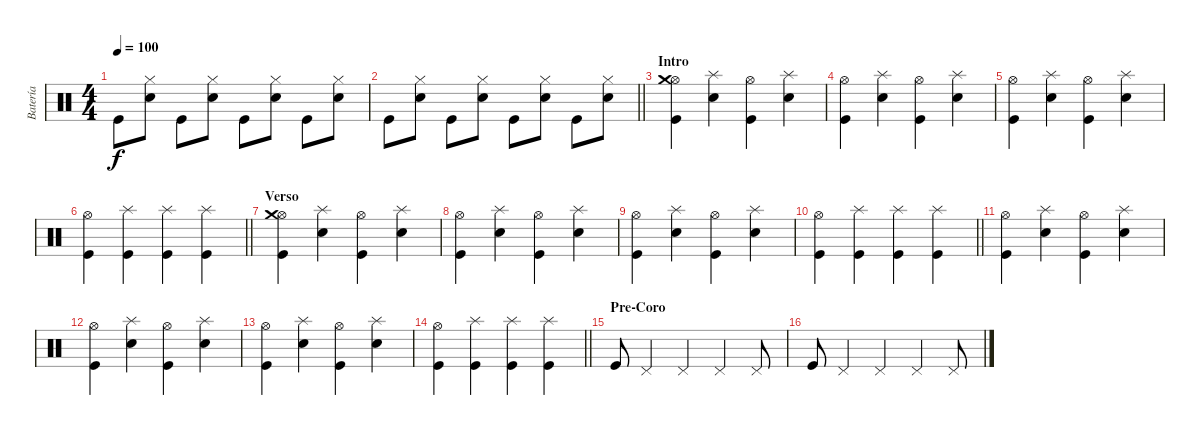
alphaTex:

\track ("Batería" "Batería") {instrument percussion}
\staff {score}
\articulation defaults
\ts (4 4)
\tempo 100
\clef neutral
\ks c "Kick (hit)".8{dy f}
("Electric Snare (hit)" "Hi-Hat (closed)").8 "Kick (hit)".8 ("Electric Snare (hit)" "Hi-Hat (closed)").8 "Kick (hit)".8 ("Electric Snare (hit)" "Hi-Hat (closed)").8 "Kick (hit)".8 ("Electric Snare (hit)" "Hi-Hat (closed)").8 |
\barLineRight lightlight "Kick (hit)".8
("Electric Snare (hit)" "Hi-Hat (closed)").8 "Kick (hit)".8 ("Electric Snare (hit)" "Hi-Hat (closed)").8 "Kick (hit)".8 ("Electric Snare (hit)" "Hi-Hat (closed)").8 "Kick (hit)".8 ("Electric Snare (hit)" "Hi-Hat (closed)").8 |
\section ("" "Intro")
("Kick (hit)" "Hi-Hat (open)" "Crash medium (hit)").4 ("Electric Snare (hit)" "Splash (hit)").4 ("Kick (hit)" "Hi-Hat (open)").4 ("Electric Snare (hit)" "Splash (hit)").4 |
("Kick (hit)" "Hi-Hat (open)").4 ("Electric Snare (hit)" "Splash (hit)").4 ("Kick (hit)" "Hi-Hat (open)").4 ("Electric Snare (hit)" "Splash (hit)").4 |
("Kick (hit)" "Hi-Hat (open)").4 ("Electric Snare (hit)" "Splash (hit)").4 ("Kick (hit)" "Hi-Hat (open)").4 ("Electric Snare (hit)" "Splash (hit)").4 |
\barLineRight lightlight
("Kick (hit)" "Hi-Hat (open)").4 ("Kick (hit)" "Splash (hit)").4 ("Kick (hit)" "Splash (hit)").4 ("Kick (hit)" "Splash (hit)").4 |
\section ("" "Verso")
("Kick (hit)" "Hi-Hat (open)" "Crash medium (hit)").4 ("Electric Snare (hit)" "Splash (hit)").4 ("Kick (hit)" "Hi-Hat (open)").4 ("Electric Snare (hit)" "Splash (hit)").4 |
("Kick (hit)" "Hi-Hat (open)").4 ("Electric Snare (hit)" "Splash (hit)").4 ("Kick (hit)" "Hi-Hat (open)").4 ("Electric Snare (hit)" "Splash (hit)").4 |
("Kick (hit)" "Hi-Hat (open)").4 ("Electric Snare (hit)" "Splash (hit)").4 ("Kick (hit)" "Hi-Hat (open)").4 ("Electric Snare (hit)" "Splash (hit)").4 |
\barLineRight lightlight
("Kick (hit)" "Hi-Hat (open)").4 ("Kick (hit)" "Splash (hit)").4 ("Kick (hit)" "Splash (hit)").4 ("Kick (hit)" "Splash (hit)").4 |
("Kick (hit)" "Hi-Hat (open)").4 ("Electric Snare (hit)" "Splash (hit)").4 ("Kick (hit)" "Hi-Hat (open)").4 ("Electric Snare (hit)" "Splash (hit)").4 |
("Kick (hit)" "Hi-Hat (open)").4 ("Electric Snare (hit)" "Splash (hit)").4 ("Kick (hit)" "Hi-Hat (open)").4 ("Electric Snare (hit)" "Splash (hit)").4 |
("Kick (hit)" "Hi-Hat (open)").4 ("Electric Snare (hit)" "Splash (hit)").4 ("Kick (hit)" "Hi-Hat (open)").4 ("Electric Snare (hit)" "Splash (hit)").4 |
\barLineRight lightlight
("Kick (hit)" "Hi-Hat (open)").4 ("Kick (hit)" "Splash (hit)").4 ("Kick (hit)" "Splash (hit)").4 ("Kick (hit)" "Splash (hit)").4 |
\section ("" "Pre-Coro")
"Kick (hit)".8 "Pedal Hi-Hat (hit)".4 "Pedal Hi-Hat (hit)".4 "Pedal Hi-Hat (hit)".4 "Pedal Hi-Hat (hit)".8 |
"Kick (hit)".8 "Pedal Hi-Hat (hit)".4 "Pedal Hi-Hat (hit)".4 "Pedal Hi-Hat (hit)".4 "Pedal Hi-Hat (hit)".8
